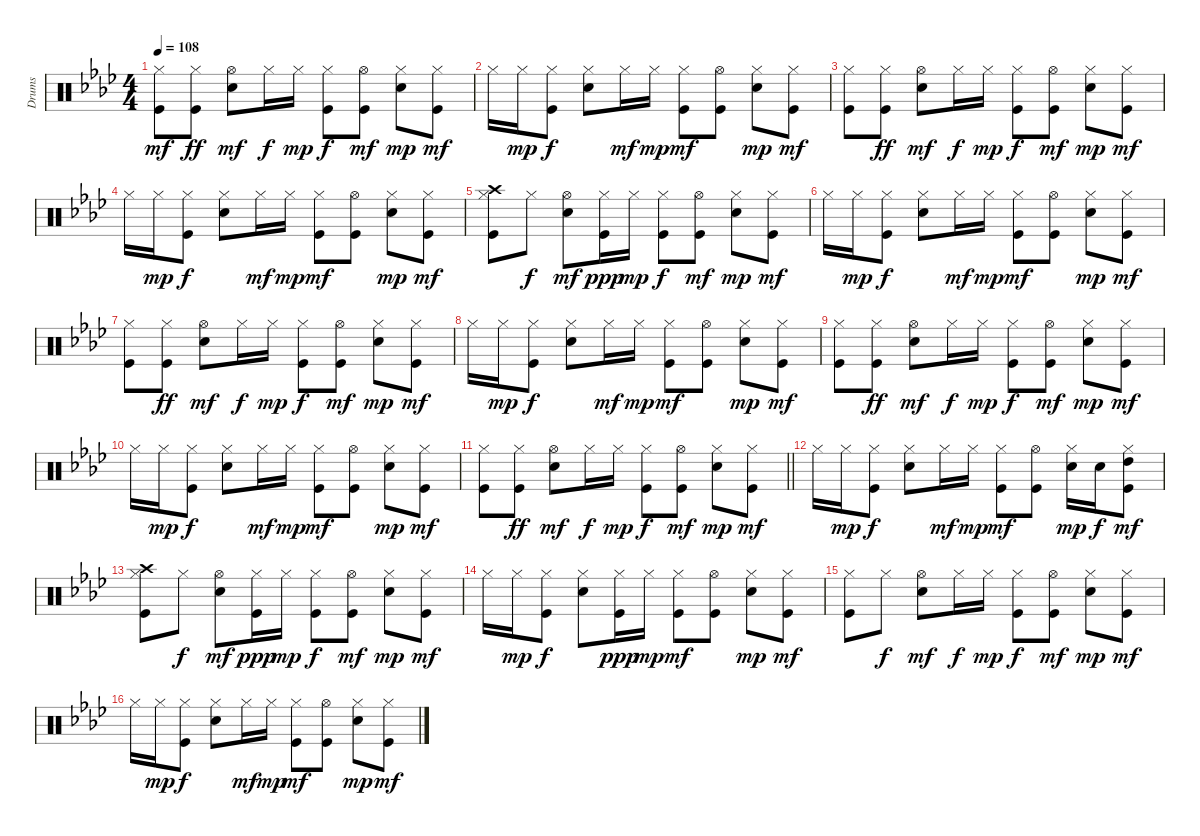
\track ("Drums" "Drums") {instrument percussion}
\staff {score}
\articulation defaults
\ts (4 4)
\tempo 108
\clef neutral
\ks ab
("Kick (hit)" "Hi-Hat (closed)").8{dy mf} ("Kick (hit)" "Hi-Hat (closed)").8{dy ff} ("Electric Snare (hit)" "Hi-Hat (open)").8{dy mf} "Hi-Hat (closed)".16{dy f} "Hi-Hat (closed)".16{dy mp} ("Kick (hit)" "Hi-Hat (closed)").8{dy f} ("Kick (hit)" "Hi-Hat (open)").8{dy mf} ("Electric Snare (hit)" "Hi-Hat (closed)").8{dy mp} ("Kick (hit)" "Hi-Hat (closed)").8{dy mf} |
"Hi-Hat (closed)".16 "Hi-Hat (closed)".16{dy mp} ("Kick (hit)" "Hi-Hat (closed)").8{dy f} ("Electric Snare (hit)" "Hi-Hat (closed)").8 "Hi-Hat (closed)".16{dy mf} "Hi-Hat (closed)".16{dy mp} ("Kick (hit)" "Hi-Hat (closed)").8{dy mf} ("Kick (hit)" "Hi-Hat (open)").8 ("Electric Snare (hit)" "Hi-Hat (closed)").8{dy mp} ("Kick (hit)" "Hi-Hat (closed)").8{dy mf} |
("Kick (hit)" "Hi-Hat (closed)").8 ("Kick (hit)" "Hi-Hat (closed)").8{dy ff} ("Electric Snare (hit)" "Hi-Hat (open)").8{dy mf} "Hi-Hat (closed)".16{dy f} "Hi-Hat (closed)".16{dy mp} ("Kick (hit)" "Hi-Hat (closed)").8{dy f} ("Kick (hit)" "Hi-Hat (open)").8{dy mf} ("Electric Snare (hit)" "Hi-Hat (closed)").8{dy mp} ("Kick (hit)" "Hi-Hat (closed)").8{dy mf} |
"Hi-Hat (closed)".16 "Hi-Hat (closed)".16{dy mp} ("Kick (hit)" "Hi-Hat (closed)").8{dy f} ("Electric Snare (hit)" "Hi-Hat (closed)").8 "Hi-Hat (closed)".16{dy mf} "Hi-Hat (closed)".16{dy mp} ("Kick (hit)" "Hi-Hat (closed)").8{dy mf} ("Kick (hit)" "Hi-Hat (open)").8 ("Electric Snare (hit)" "Hi-Hat (closed)").8{dy mp} ("Kick (hit)" "Hi-Hat (closed)").8{dy mf} |
("Kick (hit)" "Hi-Hat (closed)" "Crash high (hit)").8 "Hi-Hat (closed)".8{dy f} ("Electric Snare (hit)" "Hi-Hat (open)").8{dy mf} ("Hi-Hat (closed)" "Kick (hit)").16{dy ppp} "Hi-Hat (closed)".16{dy mp} ("Kick (hit)" "Hi-Hat (closed)").8{dy f} ("Kick (hit)" "Hi-Hat (open)").8{dy mf} ("Electric Snare (hit)" "Hi-Hat (closed)").8{dy mp} ("Kick (hit)" "Hi-Hat (closed)").8{dy mf} |
"Hi-Hat (closed)".16 "Hi-Hat (closed)".16{dy mp} ("Kick (hit)" "Hi-Hat (closed)").8{dy f} ("Electric Snare (hit)" "Hi-Hat (closed)").8 "Hi-Hat (closed)".16{dy mf} "Hi-Hat (closed)".16{dy mp} ("Kick (hit)" "Hi-Hat (closed)").8{dy mf} ("Kick (hit)" "Hi-Hat (open)").8 ("Electric Snare (hit)" "Hi-Hat (closed)").8{dy mp} ("Kick (hit)" "Hi-Hat (closed)").8{dy mf} |
("Kick (hit)" "Hi-Hat (closed)").8 ("Kick (hit)" "Hi-Hat (closed)").8{dy ff} ("Electric Snare (hit)" "Hi-Hat (open)").8{dy mf} "Hi-Hat (closed)".16{dy f} "Hi-Hat (closed)".16{dy mp} ("Kick (hit)" "Hi-Hat (closed)").8{dy f} ("Kick (hit)" "Hi-Hat (open)").8{dy mf} ("Electric Snare (hit)" "Hi-Hat (closed)").8{dy mp} ("Kick (hit)" "Hi-Hat (closed)").8{dy mf} |
"Hi-Hat (closed)".16 "Hi-Hat (closed)".16{dy mp} ("Kick (hit)" "Hi-Hat (closed)").8{dy f} ("Electric Snare (hit)" "Hi-Hat (closed)").8 "Hi-Hat (closed)".16{dy mf} "Hi-Hat (closed)".16{dy mp} ("Kick (hit)" "Hi-Hat (closed)").8{dy mf} ("Kick (hit)" "Hi-Hat (open)").8 ("Electric Snare (hit)" "Hi-Hat (closed)").8{dy mp} ("Kick (hit)" "Hi-Hat (closed)").8{dy mf} |
("Kick (hit)" "Hi-Hat (closed)").8 ("Kick (hit)" "Hi-Hat (closed)").8{dy ff} ("Electric Snare (hit)" "Hi-Hat (open)").8{dy mf} "Hi-Hat (closed)".16{dy f} "Hi-Hat (closed)".16{dy mp} ("Kick (hit)" "Hi-Hat (closed)").8{dy f} ("Kick (hit)" "Hi-Hat (open)").8{dy mf} ("Electric Snare (hit)" "Hi-Hat (closed)").8{dy mp} ("Kick (hit)" "Hi-Hat (closed)").8{dy mf} |
"Hi-Hat (closed)".16 "Hi-Hat (closed)".16{dy mp} ("Kick (hit)" "Hi-Hat (closed)").8{dy f} ("Electric Snare (hit)" "Hi-Hat (closed)").8 "Hi-Hat (closed)".16{dy mf} "Hi-Hat (closed)".16{dy mp} ("Kick (hit)" "Hi-Hat (closed)").8{dy mf} ("Kick (hit)" "Hi-Hat (open)").8 ("Electric Snare (hit)" "Hi-Hat (closed)").8{dy mp} ("Kick (hit)" "Hi-Hat (closed)").8{dy mf} |
\barLineRight lightlight
("Kick (hit)" "Hi-Hat (closed)").8 ("Kick (hit)" "Hi-Hat (closed)").8{dy ff} ("Electric Snare (hit)" "Hi-Hat (open)").8{dy mf} "Hi-Hat (closed)".16{dy f} "Hi-Hat (closed)".16{dy mp} ("Kick (hit)" "Hi-Hat (closed)").8{dy f} ("Kick (hit)" "Hi-Hat (open)").8{dy mf} ("Electric Snare (hit)" "Hi-Hat (closed)").8{dy mp} ("Kick (hit)" "Hi-Hat (closed)").8{dy mf} |
"Hi-Hat (closed)".16 "Hi-Hat (closed)".16{dy mp} ("Kick (hit)" "Hi-Hat (closed)").8{dy f} ("Electric Snare (hit)" "Hi-Hat (closed)").8 "Hi-Hat (closed)".16{dy mf} "Hi-Hat (closed)".16{dy mp} ("Kick (hit)" "Hi-Hat (closed)").8{dy mf} ("Kick (hit)" "Hi-Hat (open)").8 ("Electric Snare (hit)" "Hi-Hat (closed)").16{dy mp} "Electric Snare (hit)".16{dy f} ("Kick (hit)" "Hi-Hat (closed)" "High Tom (hit)").8{dy mf} |
("Kick (hit)" "Hi-Hat (closed)" "Crash high (hit)").8 "Hi-Hat (closed)".8{dy f} ("Electric Snare (hit)" "Hi-Hat (open)").8{dy mf} ("Hi-Hat (closed)" "Kick (hit)").16{dy ppp} "Hi-Hat (closed)".16{dy mp} ("Kick (hit)" "Hi-Hat (closed)").8{dy f} ("Kick (hit)" "Hi-Hat (open)").8{dy mf} ("Electric Snare (hit)" "Hi-Hat (closed)").8{dy mp} ("Kick (hit)" "Hi-Hat (closed)").8{dy mf} |
"Hi-Hat (closed)".16 "Hi-Hat (closed)".16{dy mp} ("Kick (hit)" "Hi-Hat (closed)").8{dy f} ("Electric Snare (hit)" "Hi-Hat (closed)").8 ("Hi-Hat (closed)" "Kick (hit)").16{dy ppp} "Hi-Hat (closed)".16{dy mp} ("Kick (hit)" "Hi-Hat (closed)").8{dy mf} ("Kick (hit)" "Hi-Hat (open)").8 ("Electric Snare (hit)" "Hi-Hat (closed)").8{dy mp} ("Kick (hit)" "Hi-Hat (closed)").8{dy mf} |
("Kick (hit)" "Hi-Hat (closed)").8 "Hi-Hat (closed)".8{dy f} ("Electric Snare (hit)" "Hi-Hat (open)").8{dy mf} "Hi-Hat (closed)".16{dy f} "Hi-Hat (closed)".16{dy mp} ("Kick (hit)" "Hi-Hat (closed)").8{dy f} ("Kick (hit)" "Hi-Hat (open)").8{dy mf} ("Electric Snare (hit)" "Hi-Hat (closed)").8{dy mp} ("Kick (hit)" "Hi-Hat (closed)").8{dy mf} |
"Hi-Hat (closed)".16 "Hi-Hat (closed)".16{dy mp} ("Kick (hit)" "Hi-Hat (closed)").8{dy f} ("Electric Snare (hit)" "Hi-Hat (closed)").8 "Hi-Hat (closed)".16{dy mf} "Hi-Hat (closed)".16{dy mp} ("Kick (hit)" "Hi-Hat (closed)").8{dy mf} ("Kick (hit)" "Hi-Hat (open)").8 ("Electric Snare (hit)" "Hi-Hat (closed)").8{dy mp} ("Kick (hit)" "Hi-Hat (closed)").8{dy mf}
